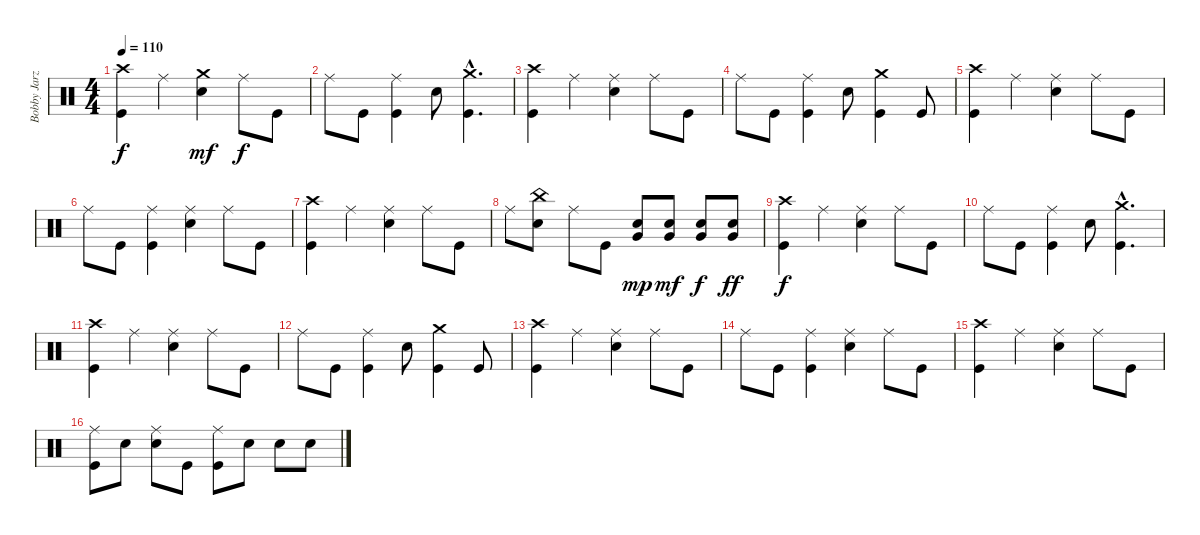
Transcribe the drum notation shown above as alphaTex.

\track ("Bobby Jarzombek" "Bobby Jarz") {instrument percussion}
\staff {score}
\articulation defaults
\ts (4 4)
\tempo 110
\clef neutral
\ks c
("Crash high (hit)" "Kick (hit)").4{dy f} "Ride (middle)".4 ("Crash medium (hit)" "Electric Snare (hit)").4{dy mf} "Ride (middle)".8{dy f} "Kick (hit)".8 |
"Ride (middle)".8 "Kick (hit)".8 ("Ride (middle)" "Kick (hit)").4 "Electric Snare (hit)".8 ("Crash medium (hit)"{hac} "Kick (hit)"{hac}).4{d} |
("Crash high (hit)" "Kick (hit)").4 "Ride (middle)".4 ("Ride (middle)" "Electric Snare (hit)").4 "Ride (middle)".8 "Kick (hit)".8 |
"Ride (middle)".8 "Kick (hit)".8 ("Ride (middle)" "Kick (hit)").4 "Electric Snare (hit)".8 ("Crash medium (hit)" "Kick (hit)").4 "Kick (hit)".8 |
("Crash high (hit)" "Kick (hit)").4 "Ride (middle)".4 ("Ride (middle)" "Electric Snare (hit)").4 "Ride (middle)".8 "Kick (hit)".8 |
"Ride (middle)".8 "Kick (hit)".8 ("Ride (middle)" "Kick (hit)").4 ("Ride (middle)" "Electric Snare (hit)").4 "Ride (middle)".8 "Kick (hit)".8 |
("Crash high (hit)" "Kick (hit)").4 "Ride (middle)".4 ("Ride (middle)" "Electric Snare (hit)").4 "Ride (middle)".8 "Kick (hit)".8 |
"Ride (middle)".8 ("China (hit)" "Electric Snare (hit)").8 "Ride (middle)".8 "Kick (hit)".8 ("Very Low Tom (hit)" "Electric Snare (hit)").8{dy mp} ("Very Low Tom (hit)" "Electric Snare (hit)").8{dy mf} ("Very Low Tom (hit)" "Electric Snare (hit)").8{dy f} ("Very Low Tom (hit)" "Electric Snare (hit)").8{dy ff} |
("Crash high (hit)" "Kick (hit)").4{dy f} "Ride (middle)".4 ("Ride (middle)" "Electric Snare (hit)").4 "Ride (middle)".8 "Kick (hit)".8 |
"Ride (middle)".8 "Kick (hit)".8 ("Ride (middle)" "Kick (hit)").4 "Electric Snare (hit)".8 ("Crash medium (hit)"{hac} "Kick (hit)"{hac}).4{d} |
("Crash high (hit)" "Kick (hit)").4 "Ride (middle)".4 ("Ride (middle)" "Electric Snare (hit)").4 "Ride (middle)".8 "Kick (hit)".8 |
"Ride (middle)".8 "Kick (hit)".8 ("Ride (middle)" "Kick (hit)").4 "Electric Snare (hit)".8 ("Crash medium (hit)" "Kick (hit)").4 "Kick (hit)".8 |
("Crash high (hit)" "Kick (hit)").4 "Ride (middle)".4 ("Ride (middle)" "Electric Snare (hit)").4 "Ride (middle)".8 "Kick (hit)".8 |
"Ride (middle)".8 "Kick (hit)".8 ("Ride (middle)" "Kick (hit)").4 ("Ride (middle)" "Electric Snare (hit)").4 "Ride (middle)".8 "Kick (hit)".8 |
("Crash high (hit)" "Kick (hit)").4 "Ride (middle)".4 ("Ride (middle)" "Electric Snare (hit)").4 "Ride (middle)".8 "Kick (hit)".8 |
("Ride (middle)" "Kick (hit)").8 "Electric Snare (hit)".8 ("Ride (middle)" "Electric Snare (hit)").8 "Kick (hit)".8 ("Ride (middle)" "Kick (hit)").8 "Electric Snare (hit)".8 "Electric Snare (hit)".8 "Electric Snare (hit)".8
